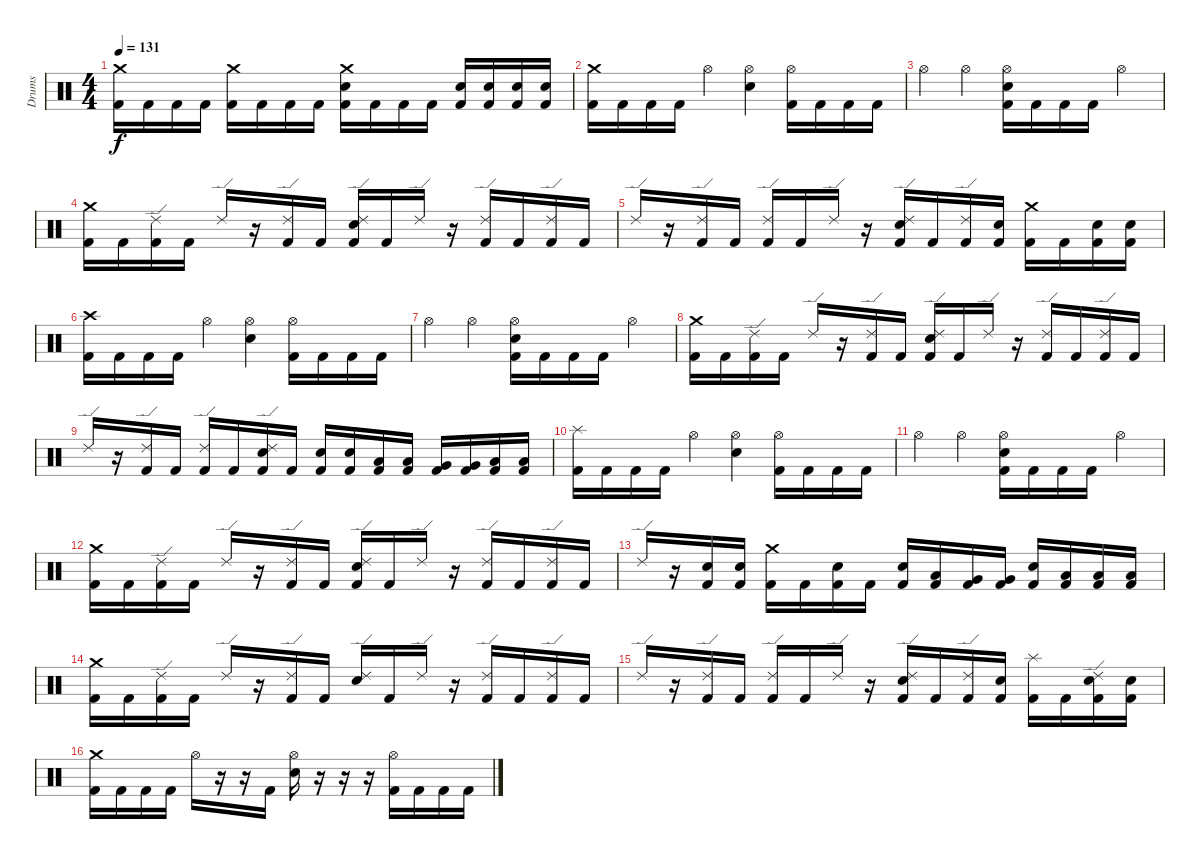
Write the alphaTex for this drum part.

\track ("Drums" "Drums") {instrument percussion}
\staff {score}
\articulation defaults
\ts (4 4)
\tempo 131
\clef neutral
\ks c
("Crash medium (hit)" "Kick (hit) 2").16{dy f} "Kick (hit) 2".16 "Kick (hit) 2".16 "Kick (hit) 2".16 ("Crash medium (hit)" "Kick (hit) 2").16 "Kick (hit) 2".16 "Kick (hit) 2".16 "Kick (hit) 2".16 ("Crash medium (hit)" "Electric Snare (hit)" "Kick (hit) 2").16 "Kick (hit) 2".16 "Kick (hit) 2".16 "Kick (hit) 2".16 ("Electric Snare (hit)" "Kick (hit) 2").16 ("Electric Snare (hit)" "Kick (hit) 2").16 ("Electric Snare (hit)" "Kick (hit) 2").16 ("Electric Snare (hit)" "Kick (hit) 2").16 |
("Crash medium (hit)" "Kick (hit) 2").16 "Kick (hit) 2".16 "Kick (hit) 2".16 "Kick (hit) 2".16 "Hi-Hat (open)".4 ("Hi-Hat (open)" "Electric Snare (hit)").4 ("Hi-Hat (open)" "Kick (hit) 2").16 "Kick (hit) 2".16 "Kick (hit) 2".16 "Kick (hit) 2".16 |
"Hi-Hat (open)".4 "Hi-Hat (open)".4 ("Hi-Hat (open)" "Electric Snare (hit)" "Kick (hit) 2").16 "Kick (hit) 2".16 "Kick (hit) 2".16 "Kick (hit) 2".16 "Hi-Hat (open)".4 |
("Crash medium (hit)" "Kick (hit) 2").16 "Kick (hit) 2".16 ("Ride (edge) 2" "Kick (hit) 2").16 "Kick (hit) 2".16 "Ride (edge) 2".16 r.16 ("Ride (edge) 2" "Kick (hit) 2").16 "Kick (hit) 2".16 ("Ride (edge) 2" "Electric Snare (hit)" "Kick (hit) 2").16 "Kick (hit) 2".16 "Ride (edge) 2".16 r.16 ("Ride (edge) 2" "Kick (hit) 2").16 "Kick (hit) 2".16 ("Ride (edge) 2" "Kick (hit) 2").16 "Kick (hit) 2".16 |
"Ride (edge) 2".16 r.16 ("Ride (edge) 2" "Kick (hit) 2").16 "Kick (hit) 2".16 ("Ride (edge) 2" "Kick (hit) 2").16 "Kick (hit) 2".16 "Ride (edge) 2".16 r.16 ("Ride (edge) 2" "Electric Snare (hit)" "Kick (hit) 2").16 "Kick (hit) 2".16 ("Ride (edge) 2" "Kick (hit) 2").16 ("Electric Snare (hit)" "Kick (hit) 2").16 ("Crash medium (hit)" "Kick (hit) 2").16 "Kick (hit) 2".16 ("Electric Snare (hit)" "Kick (hit) 2").16 ("Electric Snare (hit)" "Kick (hit) 2").16 |
("Crash high (hit)" "Kick (hit) 2").16 "Kick (hit) 2".16 "Kick (hit) 2".16 "Kick (hit) 2".16 "Hi-Hat (open)".4 ("Hi-Hat (open)" "Electric Snare (hit)").4 ("Hi-Hat (open)" "Kick (hit) 2").16 "Kick (hit) 2".16 "Kick (hit) 2".16 "Kick (hit) 2".16 |
"Hi-Hat (open)".4 "Hi-Hat (open)".4 ("Hi-Hat (open)" "Electric Snare (hit)" "Kick (hit) 2").16 "Kick (hit) 2".16 "Kick (hit) 2".16 "Kick (hit) 2".16 "Hi-Hat (open)".4 |
("Crash medium (hit)" "Kick (hit) 2").16 "Kick (hit) 2".16 ("Ride (edge) 2" "Kick (hit) 2").16 "Kick (hit) 2".16 "Ride (edge) 2".16 r.16 ("Ride (edge) 2" "Kick (hit) 2").16 "Kick (hit) 2".16 ("Ride (edge) 2" "Electric Snare (hit)" "Kick (hit) 2").16 "Kick (hit) 2".16 "Ride (edge) 2".16 r.16 ("Ride (edge) 2" "Kick (hit) 2").16 "Kick (hit) 2".16 ("Ride (edge) 2" "Kick (hit) 2").16 "Kick (hit) 2".16 |
"Ride (edge) 2".16 r.16 ("Ride (edge) 2" "Kick (hit) 2").16 "Kick (hit) 2".16 ("Ride (edge) 2" "Kick (hit) 2").16 "Kick (hit) 2".16 ("Ride (edge) 2" "Electric Snare (hit)" "Kick (hit) 2").16 "Kick (hit) 2".16 ("Electric Snare (hit)" "Kick (hit) 2").16 ("Electric Snare (hit)" "Kick (hit) 2").16 ("Low Tom (hit)" "Kick (hit) 2").16 ("Low Tom (hit)" "Kick (hit) 2").16 ("Very Low Tom (hit)" "Kick (hit) 2").16 ("Very Low Tom (hit)" "Kick (hit) 2").16 ("Low Floor Tom (hit)" "Kick (hit) 2").16 ("Low Floor Tom (hit)" "Kick (hit) 2").16 |
("Splash (hit)" "Kick (hit) 2").16 "Kick (hit) 2".16 "Kick (hit) 2".16 "Kick (hit) 2".16 "Hi-Hat (open)".4 ("Hi-Hat (open)" "Electric Snare (hit)").4 ("Hi-Hat (open)" "Kick (hit) 2").16 "Kick (hit) 2".16 "Kick (hit) 2".16 "Kick (hit) 2".16 |
"Hi-Hat (open)".4 "Hi-Hat (open)".4 ("Hi-Hat (open)" "Electric Snare (hit)" "Kick (hit) 2").16 "Kick (hit) 2".16 "Kick (hit) 2".16 "Kick (hit) 2".16 "Hi-Hat (open)".4 |
("Crash medium (hit)" "Kick (hit) 2").16 "Kick (hit) 2".16 ("Ride (edge) 2" "Kick (hit) 2").16 "Kick (hit) 2".16 "Ride (edge) 2".16 r.16 ("Ride (edge) 2" "Kick (hit) 2").16 "Kick (hit) 2".16 ("Ride (edge) 2" "Electric Snare (hit)" "Kick (hit) 2").16 "Kick (hit) 2".16 "Ride (edge) 2".16 r.16 ("Ride (edge) 2" "Kick (hit) 2").16 "Kick (hit) 2".16 ("Ride (edge) 2" "Kick (hit) 2").16 "Kick (hit) 2".16 |
"Ride (edge) 2".16 r.16 ("Electric Snare (hit)" "Kick (hit) 2").16 ("Electric Snare (hit)" "Kick (hit) 2").16 ("Crash medium (hit)" "Kick (hit) 2").16 "Kick (hit) 2".16 ("Electric Snare (hit)" "Kick (hit) 2").16 "Kick (hit) 2".16 ("Electric Snare (hit)" "Kick (hit) 2").16 ("Low Tom (hit)" "Kick (hit) 2").16 ("Very Low Tom (hit)" "Kick (hit) 2").16 ("Very Low Tom (hit)" "Kick (hit) 2").16 ("Electric Snare (hit)" "Kick (hit) 2").16 ("Low Floor Tom (hit)" "Kick (hit) 2").16 ("Low Floor Tom (hit)" "Kick (hit) 2").16 ("Low Floor Tom (hit)" "Kick (hit) 2").16 |
("Crash medium (hit)" "Kick (hit) 2").16{volume 10} "Kick (hit) 2".16 ("Ride (edge) 2" "Kick (hit) 2").16 "Kick (hit) 2".16 "Ride (edge) 2".16 r.16 ("Ride (edge) 2" "Kick (hit) 2").16 "Kick (hit) 2".16 ("Ride (edge) 2" "Electric Snare (hit)").16 "Kick (hit) 2".16 "Ride (edge) 2".16 r.16 ("Ride (edge) 2" "Kick (hit) 2").16 "Kick (hit) 2".16 ("Ride (edge) 2" "Kick (hit) 2").16 "Kick (hit) 2".16 |
"Ride (edge) 2".16 r.16 ("Ride (edge) 2" "Kick (hit) 2").16 "Kick (hit) 2".16 ("Ride (edge) 2" "Kick (hit) 2").16 "Kick (hit) 2".16 "Ride (edge) 2".16 r.16 ("Ride (edge) 2" "Electric Snare (hit)" "Kick (hit) 2").16 "Kick (hit) 2".16 ("Ride (edge) 2" "Kick (hit) 2").16 ("Electric Snare (hit)" "Kick (hit) 2").16 ("Splash (hit)" "Kick (hit) 2").16 "Kick (hit) 2".16 ("Ride (edge) 2" "Electric Snare (hit)" "Kick (hit) 2").16 ("Electric Snare (hit)" "Kick (hit) 2").16 |
("Crash medium (hit)" "Kick (hit) 2").16 "Kick (hit) 2".16 "Kick (hit) 2".16 "Kick (hit) 2".16 "Hi-Hat (open)".16 r.16 r.16 "Kick (hit) 2".16 ("Hi-Hat (open)" "Electric Snare (hit)").16 r.16 r.16 r.16 ("Hi-Hat (open)" "Kick (hit) 2").16 "Kick (hit) 2".16 "Kick (hit) 2".16 "Kick (hit) 2".16
